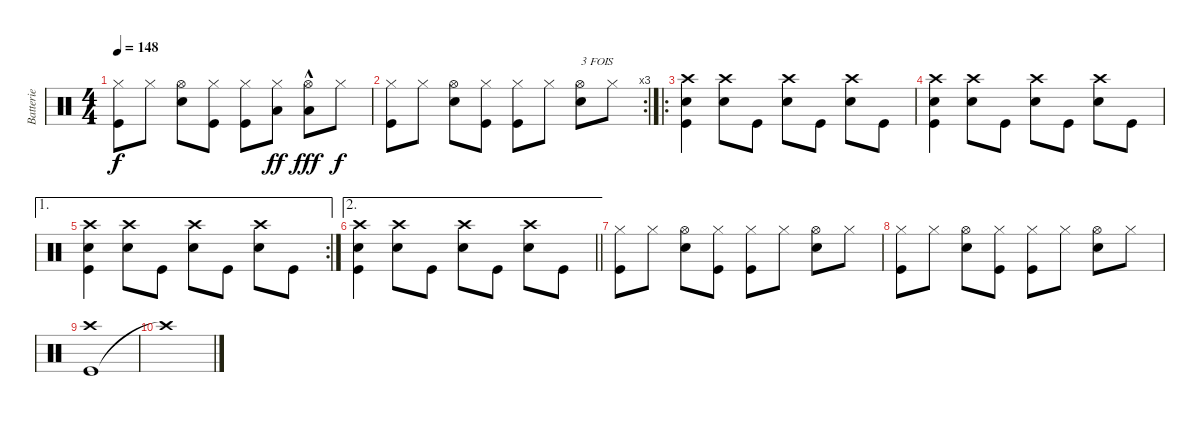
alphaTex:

\track ("Batterie" "Batterie") {instrument percussion}
\staff {score}
\articulation defaults
\ts (4 4)
\tempo 148
\clef neutral
\ks c
("Kick (hit)" "Hi-Hat (closed)").8{dy f} "Hi-Hat (closed)".8 ("Snare (hit) 2" "Hi-Hat (open)").8 ("Hi-Hat (closed)" "Kick (hit)").8 ("Kick (hit)" "Hi-Hat (closed)").8 ("Hi-Hat (closed)" "Low Tom (hit)").8{dy ff} ("Hi-Hat (open)" "Low Floor Tom (hit)"{hac}).8{dy fff} "Hi-Hat (closed)".8{dy f} |
\rc 3
("Kick (hit)" "Hi-Hat (closed)").8 "Hi-Hat (closed)".8 ("Snare (hit) 2" "Hi-Hat (open)").8 ("Hi-Hat (closed)" "Kick (hit)").8 ("Kick (hit)" "Hi-Hat (closed)").8 "Hi-Hat (closed)".8 ("Hi-Hat (open)" "Snare (hit) 2").8{txt "3 FOIS "} "Hi-Hat (closed)".8 |
\ro
("Kick (hit)" "Crash high (hit)" "Snare (hit) 2").4 ("Snare (hit) 2" "Crash high (hit)").8 "Kick (hit)".8 ("Snare (hit) 2" "Crash high (hit)").8 "Kick (hit)".8 ("Snare (hit) 2" "Crash high (hit)").8 "Kick (hit)".8 |
("Kick (hit)" "Crash high (hit)" "Snare (hit) 2").4 ("Snare (hit) 2" "Crash high (hit)").8 "Kick (hit)".8 ("Snare (hit) 2" "Crash high (hit)").8 "Kick (hit)".8 ("Snare (hit) 2" "Crash high (hit)").8 "Kick (hit)".8 |
\ae 1
\rc 2
("Kick (hit)" "Crash high (hit)" "Snare (hit) 2").4 ("Snare (hit) 2" "Crash high (hit)").8 "Kick (hit)".8 ("Snare (hit) 2" "Crash high (hit)").8 "Kick (hit)".8 ("Snare (hit) 2" "Crash high (hit)").8 "Kick (hit)".8 |
\ae 2
\barLineRight lightlight
("Kick (hit)" "Crash high (hit)" "Snare (hit) 2").4 ("Snare (hit) 2" "Crash high (hit)").8 "Kick (hit)".8 ("Snare (hit) 2" "Crash high (hit)").8 "Kick (hit)".8 ("Snare (hit) 2" "Crash high (hit)").8 "Kick (hit)".8 |
("Kick (hit)" "Hi-Hat (closed)").8 "Hi-Hat (closed)".8 ("Snare (hit) 2" "Hi-Hat (open)").8 ("Hi-Hat (closed)" "Kick (hit)").8 ("Kick (hit)" "Hi-Hat (closed)").8 "Hi-Hat (closed)".8 ("Hi-Hat (open)" "Snare (hit) 2").8 "Hi-Hat (closed)".8 |
("Kick (hit)" "Hi-Hat (closed)").8 "Hi-Hat (closed)".8 ("Snare (hit) 2" "Hi-Hat (open)").8 ("Hi-Hat (closed)" "Kick (hit)").8 ("Kick (hit)" "Hi-Hat (closed)").8 "Hi-Hat (closed)".8 ("Hi-Hat (open)" "Snare (hit) 2").8 "Hi-Hat (closed)".8 |
("Kick (hit)" "Crash high (hit)").1 |
"Crash high (hit)"{t}.1
